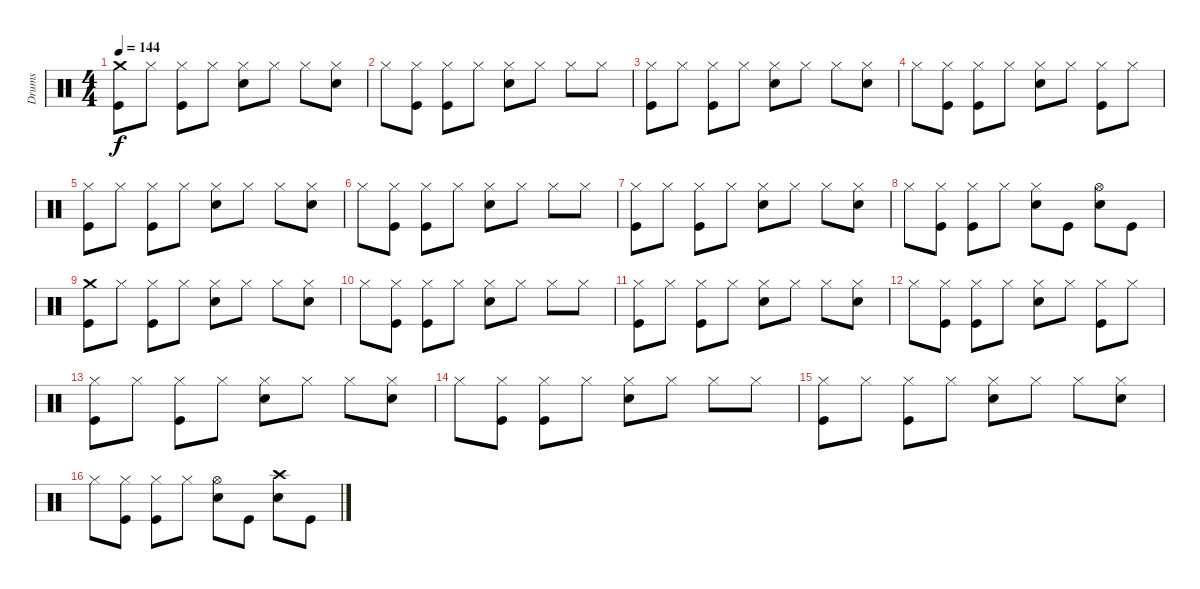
\track ("Drums" "Drums") {instrument percussion}
\staff {score}
\articulation defaults
\ts (4 4)
\tempo 144
\clef neutral
\ks c
("Crash medium (hit)" "Kick (hit)").8{dy f} "Hi-Hat (closed)".8 ("Hi-Hat (closed)" "Kick (hit)").8 "Hi-Hat (closed)".8 ("Hi-Hat (closed)" "Snare (hit) 2").8 "Hi-Hat (closed)".8 "Hi-Hat (closed)".8 ("Hi-Hat (closed)" "Snare (hit) 2").8 |
"Hi-Hat (closed)".8 ("Hi-Hat (closed)" "Kick (hit)").8 ("Hi-Hat (closed)" "Kick (hit)").8 "Hi-Hat (closed)".8 ("Hi-Hat (closed)" "Snare (hit) 2").8 "Hi-Hat (closed)".8 "Hi-Hat (closed)".8 "Hi-Hat (closed)".8 |
("Hi-Hat (closed)" "Kick (hit)").8 "Hi-Hat (closed)".8 ("Hi-Hat (closed)" "Kick (hit)").8 "Hi-Hat (closed)".8 ("Hi-Hat (closed)" "Snare (hit) 2").8 "Hi-Hat (closed)".8 "Hi-Hat (closed)".8 ("Hi-Hat (closed)" "Snare (hit) 2").8 |
"Hi-Hat (closed)".8 ("Hi-Hat (closed)" "Kick (hit)").8 ("Hi-Hat (closed)" "Kick (hit)").8 "Hi-Hat (closed)".8 ("Hi-Hat (closed)" "Snare (hit) 2").8 "Hi-Hat (closed)".8 ("Hi-Hat (closed)" "Kick (hit)").8 "Hi-Hat (closed)".8 |
("Hi-Hat (closed)" "Kick (hit)").8 "Hi-Hat (closed)".8 ("Hi-Hat (closed)" "Kick (hit)").8 "Hi-Hat (closed)".8 ("Hi-Hat (closed)" "Snare (hit) 2").8 "Hi-Hat (closed)".8 "Hi-Hat (closed)".8 ("Hi-Hat (closed)" "Snare (hit) 2").8 |
"Hi-Hat (closed)".8 ("Hi-Hat (closed)" "Kick (hit)").8 ("Hi-Hat (closed)" "Kick (hit)").8 "Hi-Hat (closed)".8 ("Hi-Hat (closed)" "Snare (hit) 2").8 "Hi-Hat (closed)".8 "Hi-Hat (closed)".8 "Hi-Hat (closed)".8 |
("Hi-Hat (closed)" "Kick (hit)").8 "Hi-Hat (closed)".8 ("Hi-Hat (closed)" "Kick (hit)").8 "Hi-Hat (closed)".8 ("Hi-Hat (closed)" "Snare (hit) 2").8 "Hi-Hat (closed)".8 "Hi-Hat (closed)".8 ("Hi-Hat (closed)" "Snare (hit) 2").8 |
"Hi-Hat (closed)".8 ("Hi-Hat (closed)" "Kick (hit)").8 ("Hi-Hat (closed)" "Kick (hit)").8 "Hi-Hat (closed)".8 ("Hi-Hat (closed)" "Snare (hit) 2").8 "Kick (hit)".8 ("Hi-Hat (open)" "Snare (hit) 2").8 "Kick (hit)".8 |
("Crash medium (hit)" "Kick (hit)").8 "Hi-Hat (closed)".8 ("Hi-Hat (closed)" "Kick (hit)").8 "Hi-Hat (closed)".8 ("Hi-Hat (closed)" "Snare (hit) 2").8 "Hi-Hat (closed)".8 "Hi-Hat (closed)".8 ("Hi-Hat (closed)" "Snare (hit) 2").8 |
"Hi-Hat (closed)".8 ("Hi-Hat (closed)" "Kick (hit)").8 ("Hi-Hat (closed)" "Kick (hit)").8 "Hi-Hat (closed)".8 ("Hi-Hat (closed)" "Snare (hit) 2").8 "Hi-Hat (closed)".8 "Hi-Hat (closed)".8 "Hi-Hat (closed)".8 |
("Hi-Hat (closed)" "Kick (hit)").8 "Hi-Hat (closed)".8 ("Hi-Hat (closed)" "Kick (hit)").8 "Hi-Hat (closed)".8 ("Hi-Hat (closed)" "Snare (hit) 2").8 "Hi-Hat (closed)".8 "Hi-Hat (closed)".8 ("Hi-Hat (closed)" "Snare (hit) 2").8 |
"Hi-Hat (closed)".8 ("Hi-Hat (closed)" "Kick (hit)").8 ("Hi-Hat (closed)" "Kick (hit)").8 "Hi-Hat (closed)".8 ("Hi-Hat (closed)" "Snare (hit) 2").8 "Hi-Hat (closed)".8 ("Hi-Hat (closed)" "Kick (hit)").8 "Hi-Hat (closed)".8 |
("Hi-Hat (closed)" "Kick (hit)").8 "Hi-Hat (closed)".8 ("Hi-Hat (closed)" "Kick (hit)").8 "Hi-Hat (closed)".8 ("Hi-Hat (closed)" "Snare (hit) 2").8 "Hi-Hat (closed)".8 "Hi-Hat (closed)".8 ("Hi-Hat (closed)" "Snare (hit) 2").8 |
"Hi-Hat (closed)".8 ("Hi-Hat (closed)" "Kick (hit)").8 ("Hi-Hat (closed)" "Kick (hit)").8 "Hi-Hat (closed)".8 ("Hi-Hat (closed)" "Snare (hit) 2").8 "Hi-Hat (closed)".8 "Hi-Hat (closed)".8 "Hi-Hat (closed)".8 |
("Hi-Hat (closed)" "Kick (hit)").8 "Hi-Hat (closed)".8 ("Hi-Hat (closed)" "Kick (hit)").8 "Hi-Hat (closed)".8 ("Hi-Hat (closed)" "Snare (hit) 2").8 "Hi-Hat (closed)".8 "Hi-Hat (closed)".8 ("Hi-Hat (closed)" "Snare (hit) 2").8 |
"Hi-Hat (closed)".8 ("Hi-Hat (closed)" "Kick (hit)").8 ("Hi-Hat (closed)" "Kick (hit)").8 "Hi-Hat (closed)".8 ("Hi-Hat (open)" "Snare (hit) 2").8 "Kick (hit)".8 ("Crash high (hit)" "Snare (hit) 2").8 "Kick (hit)".8
